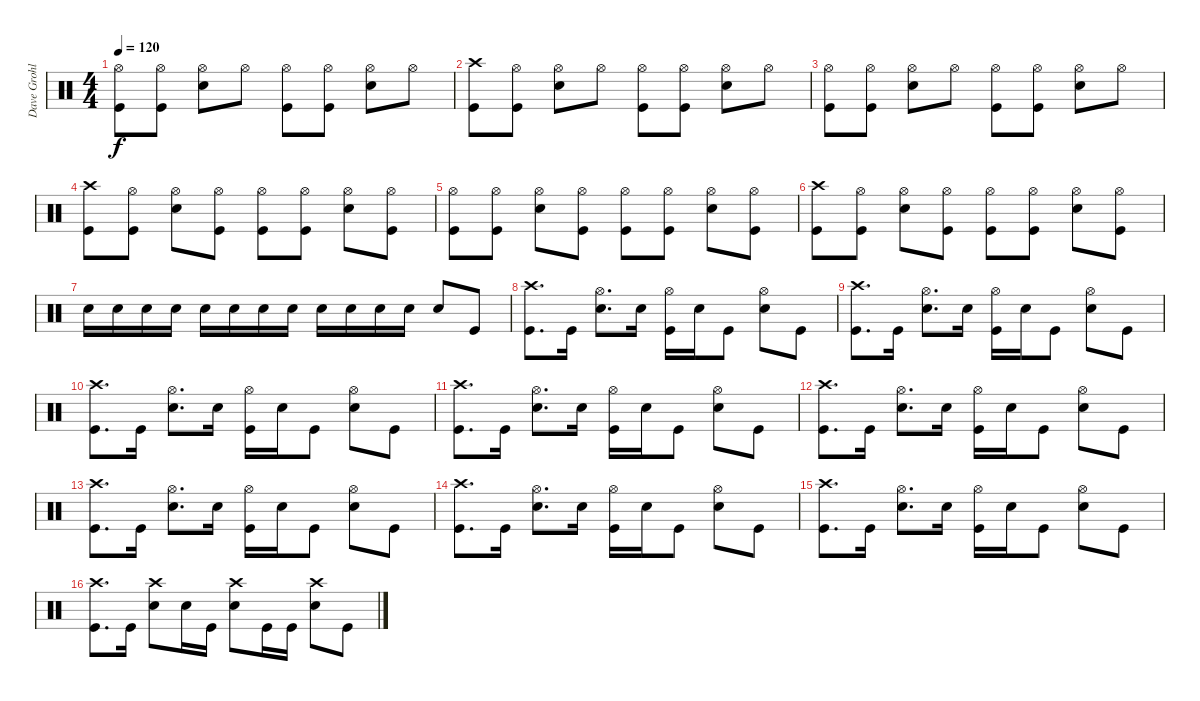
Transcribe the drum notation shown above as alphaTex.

\track ("Dave Grohl - Drums" "Dave Grohl") {instrument percussion}
\staff {score}
\articulation defaults
\ts (4 4)
\tempo 120
\clef neutral
\ks c
("Hi-Hat (open)" "Kick (hit)").8{dy f} ("Hi-Hat (open)" "Kick (hit)").8 ("Hi-Hat (open)" "Snare (hit) 2").8 "Hi-Hat (open)".8 ("Hi-Hat (open)" "Kick (hit)").8 ("Hi-Hat (open)" "Kick (hit)").8 ("Hi-Hat (open)" "Snare (hit) 2").8 "Hi-Hat (open)".8 |
("Crash high (hit)" "Kick (hit)").8 ("Hi-Hat (open)" "Kick (hit)").8 ("Hi-Hat (open)" "Snare (hit) 2").8 "Hi-Hat (open)".8 ("Hi-Hat (open)" "Kick (hit)").8 ("Hi-Hat (open)" "Kick (hit)").8 ("Hi-Hat (open)" "Snare (hit) 2").8 "Hi-Hat (open)".8 |
("Hi-Hat (open)" "Kick (hit)").8 ("Hi-Hat (open)" "Kick (hit)").8 ("Hi-Hat (open)" "Snare (hit) 2").8 "Hi-Hat (open)".8 ("Hi-Hat (open)" "Kick (hit)").8 ("Hi-Hat (open)" "Kick (hit)").8 ("Hi-Hat (open)" "Snare (hit) 2").8 "Hi-Hat (open)".8 |
("Crash high (hit)" "Kick (hit)").8 ("Hi-Hat (open)" "Kick (hit)").8 ("Hi-Hat (open)" "Snare (hit) 2").8 ("Hi-Hat (open)" "Kick (hit)").8 ("Hi-Hat (open)" "Kick (hit)").8 ("Hi-Hat (open)" "Kick (hit)").8 ("Hi-Hat (open)" "Snare (hit) 2").8 ("Hi-Hat (open)" "Kick (hit)").8 |
("Hi-Hat (open)" "Kick (hit)").8 ("Hi-Hat (open)" "Kick (hit)").8 ("Hi-Hat (open)" "Snare (hit) 2").8 ("Hi-Hat (open)" "Kick (hit)").8 ("Hi-Hat (open)" "Kick (hit)").8 ("Hi-Hat (open)" "Kick (hit)").8 ("Hi-Hat (open)" "Snare (hit) 2").8 ("Hi-Hat (open)" "Kick (hit)").8 |
("Crash high (hit)" "Kick (hit)").8 ("Hi-Hat (open)" "Kick (hit)").8 ("Hi-Hat (open)" "Snare (hit) 2").8 ("Hi-Hat (open)" "Kick (hit)").8 ("Hi-Hat (open)" "Kick (hit)").8 ("Hi-Hat (open)" "Kick (hit)").8 ("Hi-Hat (open)" "Snare (hit) 2").8 ("Hi-Hat (open)" "Kick (hit)").8 |
"Snare (hit) 2".16 "Snare (hit) 2".16 "Snare (hit) 2".16 "Snare (hit) 2".16 "Snare (hit) 2".16 "Snare (hit) 2".16 "Snare (hit) 2".16 "Snare (hit) 2".16 "Snare (hit) 2".16 "Snare (hit) 2".16 "Snare (hit) 2".16 "Snare (hit) 2".16 "Snare (hit) 2".8 "Kick (hit)".8 |
("Crash high (hit)" "Kick (hit)").8{d} "Kick (hit)".16 ("Hi-Hat (open)" "Snare (hit) 2").8{d} "Snare (hit) 2".16 ("Hi-Hat (open)" "Kick (hit)").16 "Snare (hit) 2".16 "Kick (hit)".8 ("Hi-Hat (open)" "Snare (hit) 2").8 "Kick (hit)".8 |
("Crash high (hit)" "Kick (hit)").8{d} "Kick (hit)".16 ("Hi-Hat (open)" "Snare (hit) 2").8{d} "Snare (hit) 2".16 ("Hi-Hat (open)" "Kick (hit)").16 "Snare (hit) 2".16 "Kick (hit)".8 ("Hi-Hat (open)" "Snare (hit) 2").8 "Kick (hit)".8 |
("Crash high (hit)" "Kick (hit)").8{d} "Kick (hit)".16 ("Hi-Hat (open)" "Snare (hit) 2").8{d} "Snare (hit) 2".16 ("Hi-Hat (open)" "Kick (hit)").16 "Snare (hit) 2".16 "Kick (hit)".8 ("Hi-Hat (open)" "Snare (hit) 2").8 "Kick (hit)".8 |
("Crash high (hit)" "Kick (hit)").8{d} "Kick (hit)".16 ("Hi-Hat (open)" "Snare (hit) 2").8{d} "Snare (hit) 2".16 ("Hi-Hat (open)" "Kick (hit)").16 "Snare (hit) 2".16 "Kick (hit)".8 ("Hi-Hat (open)" "Snare (hit) 2").8 "Kick (hit)".8 |
("Crash high (hit)" "Kick (hit)").8{d} "Kick (hit)".16 ("Hi-Hat (open)" "Snare (hit) 2").8{d} "Snare (hit) 2".16 ("Hi-Hat (open)" "Kick (hit)").16 "Snare (hit) 2".16 "Kick (hit)".8 ("Hi-Hat (open)" "Snare (hit) 2").8 "Kick (hit)".8 |
("Crash high (hit)" "Kick (hit)").8{d} "Kick (hit)".16 ("Hi-Hat (open)" "Snare (hit) 2").8{d} "Snare (hit) 2".16 ("Hi-Hat (open)" "Kick (hit)").16 "Snare (hit) 2".16 "Kick (hit)".8 ("Hi-Hat (open)" "Snare (hit) 2").8 "Kick (hit)".8 |
("Crash high (hit)" "Kick (hit)").8{d} "Kick (hit)".16 ("Hi-Hat (open)" "Snare (hit) 2").8{d} "Snare (hit) 2".16 ("Hi-Hat (open)" "Kick (hit)").16 "Snare (hit) 2".16 "Kick (hit)".8 ("Hi-Hat (open)" "Snare (hit) 2").8 "Kick (hit)".8 |
("Crash high (hit)" "Kick (hit)").8{d} "Kick (hit)".16 ("Hi-Hat (open)" "Snare (hit) 2").8{d} "Snare (hit) 2".16 ("Hi-Hat (open)" "Kick (hit)").16 "Snare (hit) 2".16 "Kick (hit)".8 ("Hi-Hat (open)" "Snare (hit) 2").8 "Kick (hit)".8 |
("Crash high (hit)" "Kick (hit)").8{d} "Kick (hit)".16 ("Crash high (hit)" "Snare (hit) 2").8 "Snare (hit) 2".16 "Kick (hit)".16 ("Crash high (hit)" "Snare (hit) 2").8 "Kick (hit)".16 "Kick (hit)".16 ("Crash high (hit)" "Snare (hit) 2").8 "Kick (hit)".8
